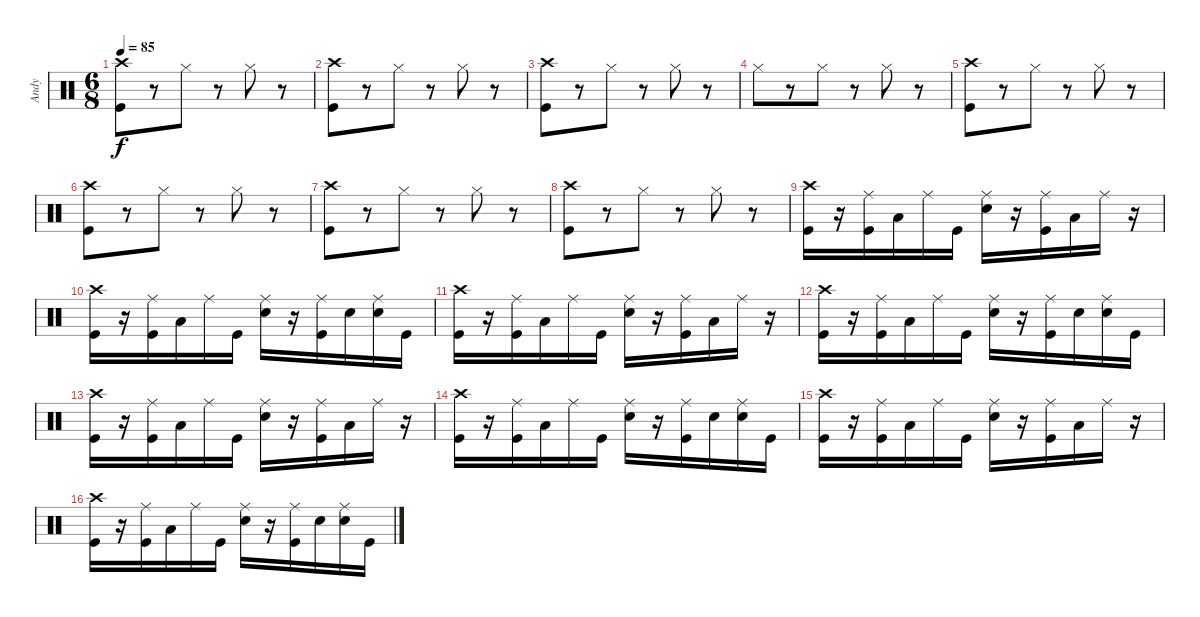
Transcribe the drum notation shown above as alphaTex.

\track ("Andy" "Andy") {instrument percussion}
\staff {score}
\articulation defaults
\ts (6 8)
\tempo 85
\clef neutral
\ks c
("Kick (hit)" "Crash high (hit)").8{dy f} r.8 "Hi-Hat (closed)".8 r.8 "Hi-Hat (closed)".8 r.8 |
("Kick (hit)" "Crash high (hit)").8 r.8 "Hi-Hat (closed)".8 r.8 "Hi-Hat (closed)".8 r.8 |
("Kick (hit)" "Crash high (hit)").8 r.8 "Hi-Hat (closed)".8 r.8 "Hi-Hat (closed)".8 r.8 |
"Hi-Hat (closed)".8 r.8 "Hi-Hat (closed)".8 r.8 "Hi-Hat (closed)".8 r.8 |
("Kick (hit)" "Crash high (hit)").8 r.8 "Hi-Hat (closed)".8 r.8 "Hi-Hat (closed)".8 r.8 |
("Kick (hit)" "Crash high (hit)").8 r.8 "Hi-Hat (closed)".8 r.8 "Hi-Hat (closed)".8 r.8 |
("Kick (hit)" "Crash high (hit)").8 r.8 "Hi-Hat (closed)".8 r.8 "Hi-Hat (closed)".8 r.8 |
("Kick (hit)" "Crash high (hit)").8 r.8 "Hi-Hat (closed)".8 r.8 "Hi-Hat (closed)".8 r.8 |
("Crash high (hit)" "Kick (hit)").16 r.16 ("Ride (middle)" "Kick (hit)").16 "Low Floor Tom (hit)".16 "Ride (middle)".16 "Kick (hit)".16 ("Ride (middle)" "Snare (hit) 2").16 r.16 ("Ride (middle)" "Kick (hit)").16 "Low Floor Tom (hit)".16 "Ride (middle)".16 r.16 |
("Crash high (hit)" "Kick (hit)").16 r.16 ("Ride (middle)" "Kick (hit)").16 "Low Floor Tom (hit)".16 "Ride (middle)".16 "Kick (hit)".16 ("Ride (middle)" "Snare (hit) 2").16 r.16 ("Ride (middle)" "Kick (hit)").16 "Snare (hit) 2".16 ("Ride (middle)" "Snare (hit) 2").16 "Kick (hit)".16 |
("Crash high (hit)" "Kick (hit)").16 r.16 ("Ride (middle)" "Kick (hit)").16 "Low Floor Tom (hit)".16 "Ride (middle)".16 "Kick (hit)".16 ("Ride (middle)" "Snare (hit) 2").16 r.16 ("Ride (middle)" "Kick (hit)").16 "Low Floor Tom (hit)".16 "Ride (middle)".16 r.16 |
("Crash high (hit)" "Kick (hit)").16 r.16 ("Ride (middle)" "Kick (hit)").16 "Low Floor Tom (hit)".16 "Ride (middle)".16 "Kick (hit)".16 ("Ride (middle)" "Snare (hit) 2").16 r.16 ("Ride (middle)" "Kick (hit)").16 "Snare (hit) 2".16 ("Ride (middle)" "Snare (hit) 2").16 "Kick (hit)".16 |
("Crash high (hit)" "Kick (hit)").16 r.16 ("Ride (middle)" "Kick (hit)").16 "Low Floor Tom (hit)".16 "Ride (middle)".16 "Kick (hit)".16 ("Ride (middle)" "Snare (hit) 2").16 r.16 ("Ride (middle)" "Kick (hit)").16 "Low Floor Tom (hit)".16 "Ride (middle)".16 r.16 |
("Crash high (hit)" "Kick (hit)").16 r.16 ("Ride (middle)" "Kick (hit)").16 "Low Floor Tom (hit)".16 "Ride (middle)".16 "Kick (hit)".16 ("Ride (middle)" "Snare (hit) 2").16 r.16 ("Ride (middle)" "Kick (hit)").16 "Snare (hit) 2".16 ("Ride (middle)" "Snare (hit) 2").16 "Kick (hit)".16 |
("Crash high (hit)" "Kick (hit)").16 r.16 ("Ride (middle)" "Kick (hit)").16 "Low Floor Tom (hit)".16 "Ride (middle)".16 "Kick (hit)".16 ("Ride (middle)" "Snare (hit) 2").16 r.16 ("Ride (middle)" "Kick (hit)").16 "Low Floor Tom (hit)".16 "Ride (middle)".16 r.16 |
("Crash high (hit)" "Kick (hit)").16 r.16 ("Ride (middle)" "Kick (hit)").16 "Low Floor Tom (hit)".16 "Ride (middle)".16 "Kick (hit)".16 ("Ride (middle)" "Snare (hit) 2").16 r.16 ("Ride (middle)" "Kick (hit)").16 "Snare (hit) 2".16 ("Ride (middle)" "Snare (hit) 2").16 "Kick (hit)".16
